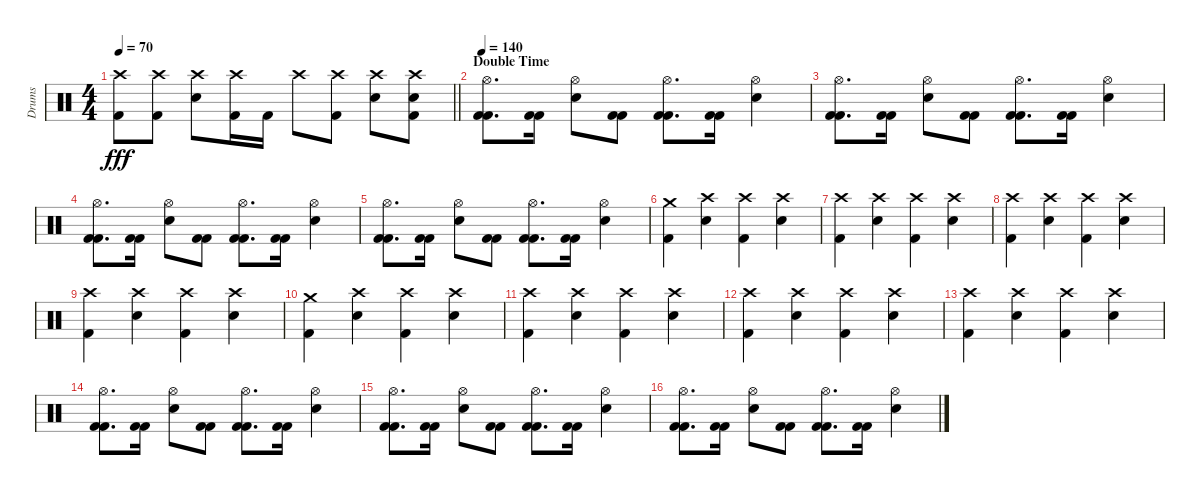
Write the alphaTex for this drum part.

\track ("Drums" "Drums") {instrument percussion}
\staff {score}
\articulation defaults
\ts (4 4)
\tempo 70
\clef neutral
\barLineRight lightlight
\ks c
("Crash high (hit)" "Kick (hit) 2").8{dy fff} ("Crash high (hit)" "Kick (hit) 2").8 ("Crash high (hit)" "Snare (hit) 2").8 ("Crash high (hit)" "Kick (hit) 2").16 "Kick (hit) 2".16 "Crash high (hit)".8 ("Crash high (hit)" "Kick (hit) 2").8 ("Crash high (hit)" "Snare (hit) 2").8 ("Crash high (hit)" "Snare (hit) 2" "Kick (hit) 2").8 |
\section ("" "Double Time")
\tempo 140
("Hi-Hat (open)" "Kick (hit) 2" "Kick (hit) 2").8{d} ("Kick (hit) 2" "Kick (hit) 2").16 ("Hi-Hat (open)" "Snare (hit) 2").8 ("Kick (hit) 2" "Kick (hit) 2").8 ("Hi-Hat (open)" "Kick (hit) 2" "Kick (hit) 2").8{d} ("Kick (hit) 2" "Kick (hit) 2").16 ("Hi-Hat (open)" "Snare (hit) 2").4 |
("Hi-Hat (open)" "Kick (hit) 2" "Kick (hit) 2").8{d} ("Kick (hit) 2" "Kick (hit) 2").16 ("Hi-Hat (open)" "Snare (hit) 2").8 ("Kick (hit) 2" "Kick (hit) 2").8 ("Hi-Hat (open)" "Kick (hit) 2" "Kick (hit) 2").8{d} ("Kick (hit) 2" "Kick (hit) 2").16 ("Hi-Hat (open)" "Snare (hit) 2").4 |
("Hi-Hat (open)" "Kick (hit) 2" "Kick (hit) 2").8{d} ("Kick (hit) 2" "Kick (hit) 2").16 ("Hi-Hat (open)" "Snare (hit) 2").8 ("Kick (hit) 2" "Kick (hit) 2").8 ("Hi-Hat (open)" "Kick (hit) 2" "Kick (hit) 2").8{d} ("Kick (hit) 2" "Kick (hit) 2").16 ("Hi-Hat (open)" "Snare (hit) 2").4 |
("Hi-Hat (open)" "Kick (hit) 2" "Kick (hit) 2").8{d} ("Kick (hit) 2" "Kick (hit) 2").16 ("Hi-Hat (open)" "Snare (hit) 2").8 ("Kick (hit) 2" "Kick (hit) 2").8 ("Hi-Hat (open)" "Kick (hit) 2" "Kick (hit) 2").8{d} ("Kick (hit) 2" "Kick (hit) 2").16 ("Hi-Hat (open)" "Snare (hit) 2").4 |
("Crash medium (hit)" "Kick (hit) 2").4 ("Crash high (hit)" "Snare (hit) 2").4 ("Crash high (hit)" "Kick (hit) 2").4 ("Crash high (hit)" "Snare (hit) 2").4 |
("Crash high (hit)" "Kick (hit) 2").4 ("Crash high (hit)" "Snare (hit) 2").4 ("Crash high (hit)" "Kick (hit) 2").4 ("Crash high (hit)" "Snare (hit) 2").4 |
("Crash high (hit)" "Kick (hit) 2").4 ("Crash high (hit)" "Snare (hit) 2").4 ("Crash high (hit)" "Kick (hit) 2").4 ("Crash high (hit)" "Snare (hit) 2").4 |
("Crash high (hit)" "Kick (hit) 2").4 ("Crash high (hit)" "Snare (hit) 2").4 ("Crash high (hit)" "Kick (hit) 2").4 ("Crash high (hit)" "Snare (hit) 2").4 |
("Crash medium (hit)" "Kick (hit) 2").4 ("Crash high (hit)" "Snare (hit) 2").4 ("Crash high (hit)" "Kick (hit) 2").4 ("Crash high (hit)" "Snare (hit) 2").4 |
("Crash high (hit)" "Kick (hit) 2").4 ("Crash high (hit)" "Snare (hit) 2").4 ("Crash high (hit)" "Kick (hit) 2").4 ("Crash high (hit)" "Snare (hit) 2").4 |
("Crash high (hit)" "Kick (hit) 2").4 ("Crash high (hit)" "Snare (hit) 2").4 ("Crash high (hit)" "Kick (hit) 2").4 ("Crash high (hit)" "Snare (hit) 2").4 |
("Crash high (hit)" "Kick (hit) 2").4 ("Crash high (hit)" "Snare (hit) 2").4 ("Crash high (hit)" "Kick (hit) 2").4 ("Crash high (hit)" "Snare (hit) 2").4 |
("Hi-Hat (open)" "Kick (hit) 2" "Kick (hit) 2").8{d} ("Kick (hit) 2" "Kick (hit) 2").16 ("Hi-Hat (open)" "Snare (hit) 2").8 ("Kick (hit) 2" "Kick (hit) 2").8 ("Hi-Hat (open)" "Kick (hit) 2" "Kick (hit) 2").8{d} ("Kick (hit) 2" "Kick (hit) 2").16 ("Hi-Hat (open)" "Snare (hit) 2").4 |
("Hi-Hat (open)" "Kick (hit) 2" "Kick (hit) 2").8{d} ("Kick (hit) 2" "Kick (hit) 2").16 ("Hi-Hat (open)" "Snare (hit) 2").8 ("Kick (hit) 2" "Kick (hit) 2").8 ("Hi-Hat (open)" "Kick (hit) 2" "Kick (hit) 2").8{d} ("Kick (hit) 2" "Kick (hit) 2").16 ("Hi-Hat (open)" "Snare (hit) 2").4 |
("Hi-Hat (open)" "Kick (hit) 2" "Kick (hit) 2").8{d} ("Kick (hit) 2" "Kick (hit) 2").16 ("Hi-Hat (open)" "Snare (hit) 2").8 ("Kick (hit) 2" "Kick (hit) 2").8 ("Hi-Hat (open)" "Kick (hit) 2" "Kick (hit) 2").8{d} ("Kick (hit) 2" "Kick (hit) 2").16 ("Hi-Hat (open)" "Snare (hit) 2").4
